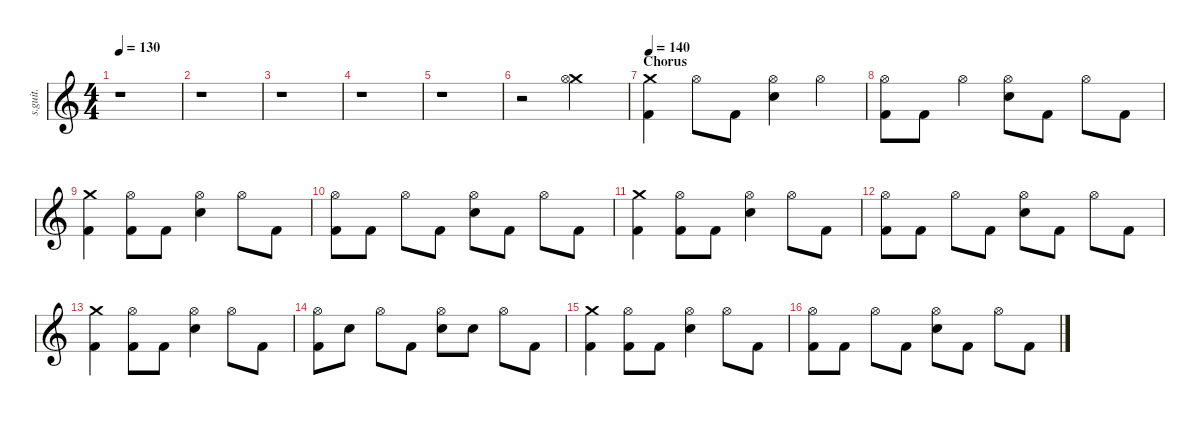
\defaultSystemsLayout 4
\hideDynamics
\bracketExtendMode nobrackets
\track ("Abe Cunningham" "s.guit.") {instrument percussion}
\staff {score}
\articulation defaults
\ts (4 4)
\tempo 130
\clef g2
\ks c
r.1{dy fff} |
r.1 |
r.1 |
r.1 |
r.1 |
r.2 ("Crash medium (hit)" "Hi-Hat (open)").2{lyrics (0 "") lyrics (1 "") lyrics (2 "") lyrics (3 "") lyrics (4 "")} |
\section ("" "Chorus")
\tempo 140
("Crash medium (hit)" "Kick (hit) 2").4{lyrics (0 "") lyrics (1 "") lyrics (2 "") lyrics (3 "") lyrics (4 "")} "Hi-Hat (open)".8{lyrics (0 "") lyrics (1 "") lyrics (2 "") lyrics (3 "") lyrics (4 "")} "Kick (hit) 2".8{lyrics (0 "") lyrics (1 "") lyrics (2 "") lyrics (3 "") lyrics (4 "")} ("Hi-Hat (open)" "Snare (hit) 2").4{lyrics (0 "") lyrics (1 "") lyrics (2 "") lyrics (3 "") lyrics (4 "")} "Hi-Hat (open)".4{lyrics (0 "") lyrics (1 "") lyrics (2 "") lyrics (3 "") lyrics (4 "")} |
("Hi-Hat (open)" "Kick (hit) 2").8{lyrics (0 "") lyrics (1 "") lyrics (2 "") lyrics (3 "") lyrics (4 "")} "Kick (hit) 2".8{lyrics (0 "") lyrics (1 "") lyrics (2 "") lyrics (3 "") lyrics (4 "")} "Hi-Hat (open)".4{lyrics (0 "") lyrics (1 "") lyrics (2 "") lyrics (3 "") lyrics (4 "")} ("Hi-Hat (open)" "Snare (hit) 2").8{lyrics (0 "") lyrics (1 "") lyrics (2 "") lyrics (3 "") lyrics (4 "")} "Kick (hit) 2".8{lyrics (0 "") lyrics (1 "") lyrics (2 "") lyrics (3 "") lyrics (4 "")} "Hi-Hat (open)".8{lyrics (0 "") lyrics (1 "") lyrics (2 "") lyrics (3 "") lyrics (4 "")} "Kick (hit) 2".8{lyrics (0 "") lyrics (1 "") lyrics (2 "") lyrics (3 "") lyrics (4 "")} |
("Crash medium (hit)" "Kick (hit) 2").4{lyrics (0 "") lyrics (1 "") lyrics (2 "") lyrics (3 "") lyrics (4 "")} ("Hi-Hat (open)" "Kick (hit) 2").8{lyrics (0 "") lyrics (1 "") lyrics (2 "") lyrics (3 "") lyrics (4 "")} "Kick (hit) 2".8{lyrics (0 "") lyrics (1 "") lyrics (2 "") lyrics (3 "") lyrics (4 "")} ("Hi-Hat (open)" "Snare (hit) 2").4{lyrics (0 "") lyrics (1 "") lyrics (2 "") lyrics (3 "") lyrics (4 "")} "Hi-Hat (open)".8{lyrics (0 "") lyrics (1 "") lyrics (2 "") lyrics (3 "") lyrics (4 "")} "Kick (hit) 2".8{lyrics (0 "") lyrics (1 "") lyrics (2 "") lyrics (3 "") lyrics (4 "")} |
("Hi-Hat (open)" "Kick (hit) 2").8{lyrics (0 "") lyrics (1 "") lyrics (2 "") lyrics (3 "") lyrics (4 "")} "Kick (hit) 2".8{lyrics (0 "") lyrics (1 "") lyrics (2 "") lyrics (3 "") lyrics (4 "")} "Hi-Hat (open)".8{lyrics (0 "") lyrics (1 "") lyrics (2 "") lyrics (3 "") lyrics (4 "")} "Kick (hit) 2".8{lyrics (0 "") lyrics (1 "") lyrics (2 "") lyrics (3 "") lyrics (4 "")} ("Hi-Hat (open)" "Snare (hit) 2").8{lyrics (0 "") lyrics (1 "") lyrics (2 "") lyrics (3 "") lyrics (4 "")} "Kick (hit) 2".8{lyrics (0 "") lyrics (1 "") lyrics (2 "") lyrics (3 "") lyrics (4 "")} "Hi-Hat (open)".8{lyrics (0 "") lyrics (1 "") lyrics (2 "") lyrics (3 "") lyrics (4 "")} "Kick (hit) 2".8{lyrics (0 "") lyrics (1 "") lyrics (2 "") lyrics (3 "") lyrics (4 "")} |
("Crash medium (hit)" "Kick (hit) 2").4{lyrics (0 "") lyrics (1 "") lyrics (2 "") lyrics (3 "") lyrics (4 "")} ("Hi-Hat (open)" "Kick (hit) 2").8{lyrics (0 "") lyrics (1 "") lyrics (2 "") lyrics (3 "") lyrics (4 "")} "Kick (hit) 2".8{lyrics (0 "") lyrics (1 "") lyrics (2 "") lyrics (3 "") lyrics (4 "")} ("Hi-Hat (open)" "Snare (hit) 2").4{lyrics (0 "") lyrics (1 "") lyrics (2 "") lyrics (3 "") lyrics (4 "")} "Hi-Hat (open)".8{lyrics (0 "") lyrics (1 "") lyrics (2 "") lyrics (3 "") lyrics (4 "")} "Kick (hit) 2".8{lyrics (0 "") lyrics (1 "") lyrics (2 "") lyrics (3 "") lyrics (4 "")} |
("Hi-Hat (open)" "Kick (hit) 2").8{lyrics (0 "") lyrics (1 "") lyrics (2 "") lyrics (3 "") lyrics (4 "")} "Kick (hit) 2".8{lyrics (0 "") lyrics (1 "") lyrics (2 "") lyrics (3 "") lyrics (4 "")} "Hi-Hat (open)".8{lyrics (0 "") lyrics (1 "") lyrics (2 "") lyrics (3 "") lyrics (4 "")} "Kick (hit) 2".8{lyrics (0 "") lyrics (1 "") lyrics (2 "") lyrics (3 "") lyrics (4 "")} ("Hi-Hat (open)" "Snare (hit) 2").8{lyrics (0 "") lyrics (1 "") lyrics (2 "") lyrics (3 "") lyrics (4 "")} "Kick (hit) 2".8{lyrics (0 "") lyrics (1 "") lyrics (2 "") lyrics (3 "") lyrics (4 "")} "Hi-Hat (open)".8{lyrics (0 "") lyrics (1 "") lyrics (2 "") lyrics (3 "") lyrics (4 "")} "Kick (hit) 2".8{lyrics (0 "") lyrics (1 "") lyrics (2 "") lyrics (3 "") lyrics (4 "")} |
("Crash medium (hit)" "Kick (hit) 2").4{lyrics (0 "") lyrics (1 "") lyrics (2 "") lyrics (3 "") lyrics (4 "")} ("Hi-Hat (open)" "Kick (hit) 2").8{lyrics (0 "") lyrics (1 "") lyrics (2 "") lyrics (3 "") lyrics (4 "")} "Kick (hit) 2".8{lyrics (0 "") lyrics (1 "") lyrics (2 "") lyrics (3 "") lyrics (4 "")} ("Hi-Hat (open)" "Snare (hit) 2").4{lyrics (0 "") lyrics (1 "") lyrics (2 "") lyrics (3 "") lyrics (4 "")} "Hi-Hat (open)".8{lyrics (0 "") lyrics (1 "") lyrics (2 "") lyrics (3 "") lyrics (4 "")} "Kick (hit) 2".8{lyrics (0 "") lyrics (1 "") lyrics (2 "") lyrics (3 "") lyrics (4 "")} |
("Hi-Hat (open)" "Kick (hit) 2").8{lyrics (0 "") lyrics (1 "") lyrics (2 "") lyrics (3 "") lyrics (4 "")} "Snare (hit) 2".8{lyrics (0 "") lyrics (1 "") lyrics (2 "") lyrics (3 "") lyrics (4 "")} "Hi-Hat (open)".8{lyrics (0 "") lyrics (1 "") lyrics (2 "") lyrics (3 "") lyrics (4 "")} "Kick (hit) 2".8{lyrics (0 "") lyrics (1 "") lyrics (2 "") lyrics (3 "") lyrics (4 "")} ("Hi-Hat (open)" "Snare (hit) 2").8{lyrics (0 "") lyrics (1 "") lyrics (2 "") lyrics (3 "") lyrics (4 "")} "Snare (hit) 2".8{lyrics (0 "") lyrics (1 "") lyrics (2 "") lyrics (3 "") lyrics (4 "")} "Hi-Hat (open)".8{lyrics (0 "") lyrics (1 "") lyrics (2 "") lyrics (3 "") lyrics (4 "")} "Kick (hit) 2".8{lyrics (0 "") lyrics (1 "") lyrics (2 "") lyrics (3 "") lyrics (4 "")} |
("Crash medium (hit)" "Kick (hit) 2").4{lyrics (0 "") lyrics (1 "") lyrics (2 "") lyrics (3 "") lyrics (4 "")} ("Hi-Hat (open)" "Kick (hit) 2").8{lyrics (0 "") lyrics (1 "") lyrics (2 "") lyrics (3 "") lyrics (4 "")} "Kick (hit) 2".8{lyrics (0 "") lyrics (1 "") lyrics (2 "") lyrics (3 "") lyrics (4 "")} ("Hi-Hat (open)" "Snare (hit) 2").4{lyrics (0 "") lyrics (1 "") lyrics (2 "") lyrics (3 "") lyrics (4 "")} "Hi-Hat (open)".8{lyrics (0 "") lyrics (1 "") lyrics (2 "") lyrics (3 "") lyrics (4 "")} "Kick (hit) 2".8{lyrics (0 "") lyrics (1 "") lyrics (2 "") lyrics (3 "") lyrics (4 "")} |
("Hi-Hat (open)" "Kick (hit) 2").8{lyrics (0 "") lyrics (1 "") lyrics (2 "") lyrics (3 "") lyrics (4 "")} "Kick (hit) 2".8{lyrics (0 "") lyrics (1 "") lyrics (2 "") lyrics (3 "") lyrics (4 "")} "Hi-Hat (open)".8{lyrics (0 "") lyrics (1 "") lyrics (2 "") lyrics (3 "") lyrics (4 "")} "Kick (hit) 2".8{lyrics (0 "") lyrics (1 "") lyrics (2 "") lyrics (3 "") lyrics (4 "")} ("Hi-Hat (open)" "Snare (hit) 2").8{lyrics (0 "") lyrics (1 "") lyrics (2 "") lyrics (3 "") lyrics (4 "")} "Kick (hit) 2".8{lyrics (0 "") lyrics (1 "") lyrics (2 "") lyrics (3 "") lyrics (4 "")} "Hi-Hat (open)".8{lyrics (0 "") lyrics (1 "") lyrics (2 "") lyrics (3 "") lyrics (4 "")} "Kick (hit) 2".8{lyrics (0 "") lyrics (1 "") lyrics (2 "") lyrics (3 "") lyrics (4 "")}
